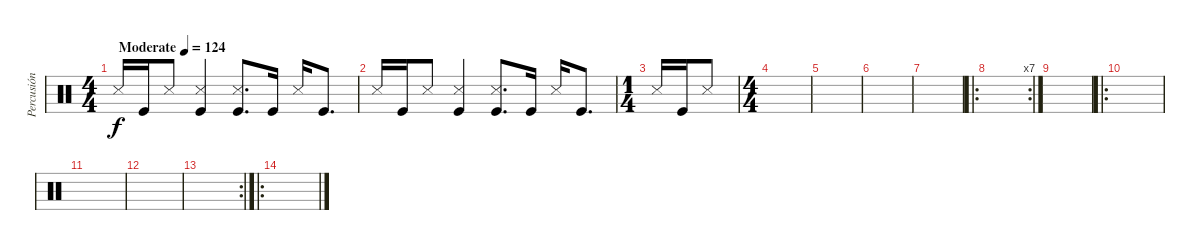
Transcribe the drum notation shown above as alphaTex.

\track ("Percusión" "Percusión") {instrument percussion bank 2}
\staff {score}
\articulation defaults
\ts (4 4)
\tempo (124 "Moderate")
\clef neutral
\ks c "Snare (side stick) 3".16{dy f} "Kick (hit)".16 "Snare (side stick) 3".8
("Snare (side stick) 3" "Kick (hit)").4 ("Snare (side stick) 3" "Kick (hit)").8{d} "Kick (hit)".16 "Snare (side stick) 3".16 "Kick (hit)".8{d} |
"Snare (side stick) 3".16 "Kick (hit)".16 "Snare (side stick) 3".8 ("Snare (side stick) 3" "Kick (hit)").4 ("Snare (side stick) 3" "Kick (hit)").8{d} "Kick (hit)".16 "Snare (side stick) 3".16 "Kick (hit)".8{d} |
\ts (1 4)
"Snare (side stick) 3".16 "Kick (hit)".16 "Snare (side stick) 3".8 |
\ts (4 4)
|
|
|
|
\ro
\rc 7
|
|
\ro
|
|
|
\rc 2
|
\ro
